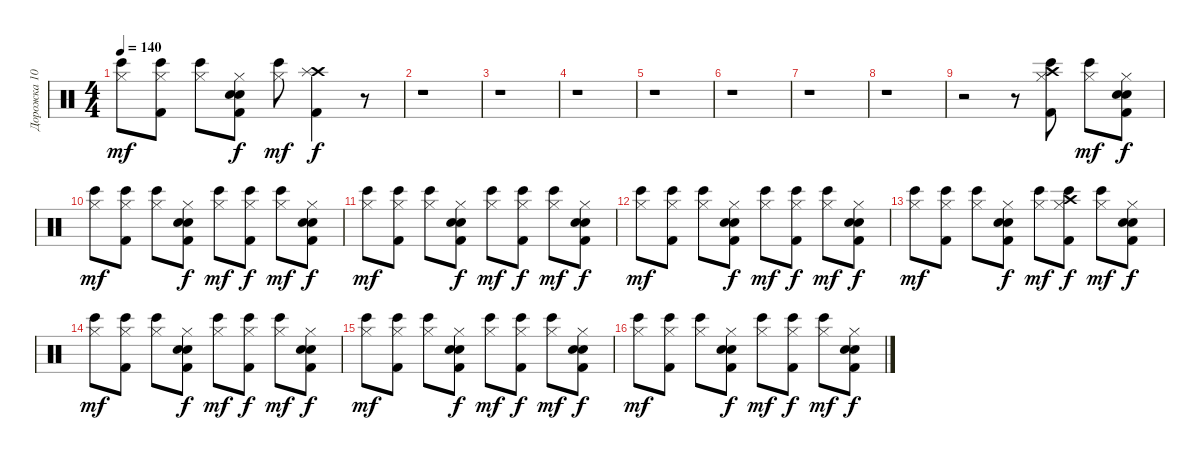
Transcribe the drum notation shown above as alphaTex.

\track ("Дорожка 10" "Дорожка 10") {instrument percussion}
\staff {score}
\articulation defaults
\ts (4 4)
\tempo 140
\clef neutral
\ks c
("Hi-Hat (closed)" "Bongo High (hit)").8{dy mf} ("Kick (hit) 2" "Hi-Hat (closed)" "Bongo High (hit)").8 ("Hi-Hat (closed)" "Bongo High (hit)").8 ("Hand Clap (hit)" "Kick (hit) 2" "Snare (hit) 2" "Hi-Hat (closed)").8{dy f} ("Bongo High (hit)" "Hi-Hat (closed)").8{dy mf} ("Crash high (hit)" "Splash (hit)" "Kick (hit) 2").4{dy f} r.8 |
r.1 |
r.1 |
r.1 |
r.1 |
r.1 |
r.1 |
r.1 |
r.2 r.8 ("Bongo High (hit)" "Hi-Hat (closed)" "Crash high (hit)" "Kick (hit) 2").8 ("Bongo High (hit)" "Hi-Hat (closed)").8{dy mf} ("Hi-Hat (closed)" "Snare (hit) 2" "Hand Clap (hit)" "Kick (hit) 2").8{dy f} |
("Hi-Hat (closed)" "Bongo High (hit)").8{dy mf} ("Hi-Hat (closed)" "Kick (hit) 2" "Bongo High (hit)").8 ("Hi-Hat (closed)" "Bongo High (hit)").8 ("Hi-Hat (closed)" "Hand Clap (hit)" "Kick (hit) 2" "Snare (hit) 2").8{dy f} ("Bongo High (hit)" "Hi-Hat (closed)").8{dy mf} ("Kick (hit) 2" "Hi-Hat (closed)" "Bongo High (hit)").8{dy f} ("Bongo High (hit)" "Hi-Hat (closed)").8{dy mf} ("Snare (hit) 2" "Kick (hit) 2" "Hi-Hat (closed)" "Hand Clap (hit)").8{dy f} |
("Hi-Hat (closed)" "Bongo High (hit)").8{dy mf} ("Kick (hit) 2" "Hi-Hat (closed)" "Bongo High (hit)").8 ("Hi-Hat (closed)" "Bongo High (hit)").8 ("Kick (hit) 2" "Snare (hit) 2" "Hi-Hat (closed)" "Hand Clap (hit)").8{dy f} ("Hi-Hat (closed)" "Bongo High (hit)").8{dy mf} ("Hi-Hat (closed)" "Kick (hit) 2" "Bongo High (hit)").8{dy f} ("Bongo High (hit)" "Hi-Hat (closed)").8{dy mf} ("Hi-Hat (closed)" "Snare (hit) 2" "Kick (hit) 2" "Hand Clap (hit)").8{dy f} |
("Hi-Hat (closed)" "Bongo High (hit)").8{dy mf} ("Hi-Hat (closed)" "Kick (hit) 2" "Bongo High (hit)").8 ("Hi-Hat (closed)" "Bongo High (hit)").8 ("Hi-Hat (closed)" "Kick (hit) 2" "Snare (hit) 2" "Hand Clap (hit)").8{dy f} ("Hi-Hat (closed)" "Bongo High (hit)").8{dy mf} ("Kick (hit) 2" "Hi-Hat (closed)" "Bongo High (hit)").8{dy f} ("Bongo High (hit)" "Hi-Hat (closed)").8{dy mf} ("Snare (hit) 2" "Kick (hit) 2" "Hi-Hat (closed)" "Hand Clap (hit)").8{dy f} |
("Hi-Hat (closed)" "Bongo High (hit)").8{dy mf} ("Kick (hit) 2" "Hi-Hat (closed)" "Bongo High (hit)").8 ("Hi-Hat (closed)" "Bongo High (hit)").8 ("Kick (hit) 2" "Snare (hit) 2" "Hi-Hat (closed)" "Hand Clap (hit)").8{dy f} ("Hi-Hat (closed)" "Bongo High (hit)").8{dy mf} ("Bongo High (hit)" "Hi-Hat (closed)" "Crash high (hit)" "Kick (hit) 2").8{dy f} ("Bongo High (hit)" "Hi-Hat (closed)").8{dy mf} ("Hi-Hat (closed)" "Snare (hit) 2" "Hand Clap (hit)" "Kick (hit) 2").8{dy f} |
("Hi-Hat (closed)" "Bongo High (hit)").8{dy mf} ("Hi-Hat (closed)" "Kick (hit) 2" "Bongo High (hit)").8 ("Hi-Hat (closed)" "Bongo High (hit)").8 ("Hi-Hat (closed)" "Hand Clap (hit)" "Kick (hit) 2" "Snare (hit) 2").8{dy f} ("Bongo High (hit)" "Hi-Hat (closed)").8{dy mf} ("Bongo High (hit)" "Kick (hit) 2" "Hi-Hat (closed)").8{dy f} ("Bongo High (hit)" "Hi-Hat (closed)").8{dy mf} ("Hand Clap (hit)" "Snare (hit) 2" "Kick (hit) 2" "Hi-Hat (closed)").8{dy f} |
("Hi-Hat (closed)" "Bongo High (hit)").8{dy mf} ("Kick (hit) 2" "Hi-Hat (closed)" "Bongo High (hit)").8 ("Hi-Hat (closed)" "Bongo High (hit)").8 ("Hand Clap (hit)" "Kick (hit) 2" "Snare (hit) 2" "Hi-Hat (closed)").8{dy f} ("Bongo High (hit)" "Hi-Hat (closed)").8{dy mf} ("Bongo High (hit)" "Hi-Hat (closed)" "Kick (hit) 2").8{dy f} ("Bongo High (hit)" "Hi-Hat (closed)").8{dy mf} ("Hand Clap (hit)" "Hi-Hat (closed)" "Snare (hit) 2" "Kick (hit) 2").8{dy f} |
("Hi-Hat (closed)" "Bongo High (hit)").8{dy mf} ("Hi-Hat (closed)" "Kick (hit) 2" "Bongo High (hit)").8 ("Hi-Hat (closed)" "Bongo High (hit)").8 ("Hand Clap (hit)" "Hi-Hat (closed)" "Kick (hit) 2" "Snare (hit) 2").8{dy f} ("Bongo High (hit)" "Hi-Hat (closed)").8{dy mf} ("Bongo High (hit)" "Hi-Hat (closed)" "Kick (hit) 2").8{dy f} ("Bongo High (hit)" "Hi-Hat (closed)").8{dy mf} ("Hand Clap (hit)" "Hi-Hat (closed)" "Snare (hit) 2" "Kick (hit) 2").8{dy f}
